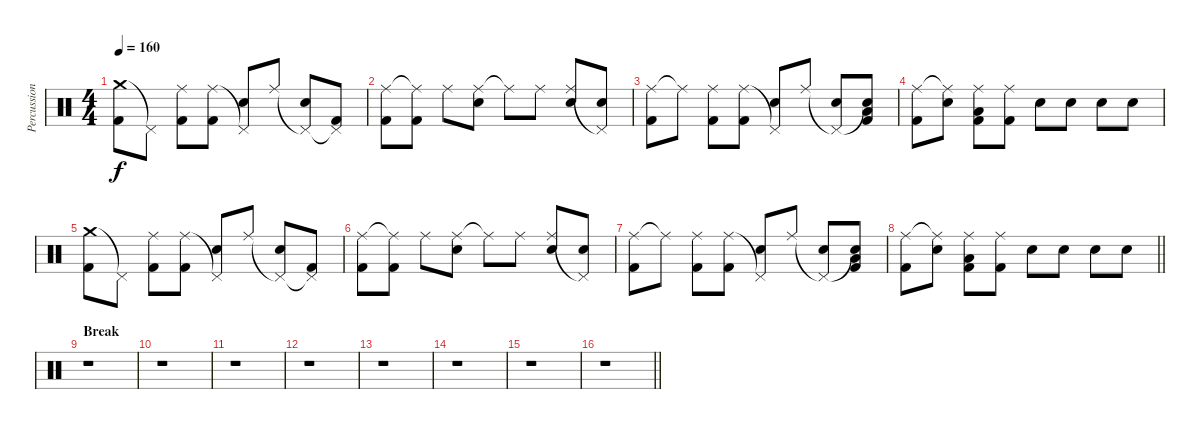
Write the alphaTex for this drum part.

\track ("Percussions" "Percussion") {instrument percussion}
\staff {score}
\articulation defaults
\ts (4 4)
\tempo 160
\clef neutral
\ks c
("Crash medium (hit)" "Kick (hit) 2").8{dy f} "Pedal Hi-Hat (hit)"{t}.8 ("Ride (middle)" "Kick (hit) 2").8 ("Ride (middle)" "Kick (hit) 2").8 ("Pedal Hi-Hat (hit)"{t} "Snare (hit) 2").8 "Ride (middle)".8 ("Pedal Hi-Hat (hit)"{t} "Snare (hit) 2").8 ("Pedal Hi-Hat (hit)"{t} "Kick (hit) 2").8 |
("Ride (middle)" "Kick (hit) 2").8 ("Ride (middle)"{t} "Kick (hit) 2").8 "Ride (middle)".8 ("Ride (middle)" "Snare (hit) 2").8 "Ride (middle)"{t}.8 "Ride (middle)".8 ("Ride (middle)" "Snare (hit) 2").8 ("Pedal Hi-Hat (hit)"{t} "Snare (hit) 2").8 |
("Ride (middle)" "Kick (hit) 2").8 "Ride (middle)"{t}.8 ("Ride (middle)" "Kick (hit) 2").8 ("Ride (middle)" "Kick (hit) 2").8 ("Pedal Hi-Hat (hit)"{t} "Snare (hit) 2").8 "Ride (middle)".8 ("Pedal Hi-Hat (hit)"{t} "Snare (hit) 2").8 ("Snare (hit)"{t} "Low Tom (hit)" "Kick (hit) 2").8 |
("Ride (middle)" "Kick (hit) 2").8 ("Ride (middle)"{t} "Snare (hit) 2").8 ("Ride (middle)" "Low Tom (hit)" "Kick (hit) 2").8 ("Ride (middle)" "Kick (hit) 2").8 "Snare (hit) 2".8 "Snare (hit) 2".8 "Snare (hit) 2".8 "Snare (hit) 2".8 |
("Crash medium (hit)" "Kick (hit) 2").8 "Pedal Hi-Hat (hit)"{t}.8 ("Ride (middle)" "Kick (hit) 2").8 ("Ride (middle)" "Kick (hit) 2").8 ("Pedal Hi-Hat (hit)"{t} "Snare (hit) 2").8 "Ride (middle)".8 ("Pedal Hi-Hat (hit)"{t} "Snare (hit) 2").8 ("Pedal Hi-Hat (hit)"{t} "Kick (hit) 2").8 |
("Ride (middle)" "Kick (hit) 2").8 ("Ride (middle)"{t} "Kick (hit) 2").8 "Ride (middle)".8 ("Ride (middle)" "Snare (hit) 2").8 "Ride (middle)"{t}.8 "Ride (middle)".8 ("Ride (middle)" "Snare (hit) 2").8 ("Pedal Hi-Hat (hit)"{t} "Snare (hit) 2").8 |
("Ride (middle)" "Kick (hit) 2").8 "Ride (middle)"{t}.8 ("Ride (middle)" "Kick (hit) 2").8 ("Ride (middle)" "Kick (hit) 2").8 ("Pedal Hi-Hat (hit)"{t} "Snare (hit) 2").8 "Ride (middle)".8 ("Pedal Hi-Hat (hit)"{t} "Snare (hit) 2").8 ("Snare (hit)"{t} "Low Tom (hit)" "Kick (hit) 2").8 |
\barLineRight lightlight
("Ride (middle)" "Kick (hit) 2").8 ("Ride (middle)"{t} "Snare (hit) 2").8 ("Ride (middle)" "Low Tom (hit)" "Kick (hit) 2").8 ("Ride (middle)" "Kick (hit) 2").8 "Snare (hit) 2".8 "Snare (hit) 2".8 "Snare (hit) 2".8 "Snare (hit) 2".8 |
\section ("" "Break")
r.1 |
r.1 |
r.1 |
r.1 |
r.1 |
r.1 |
r.1 |
\barLineRight lightlight
r.1
